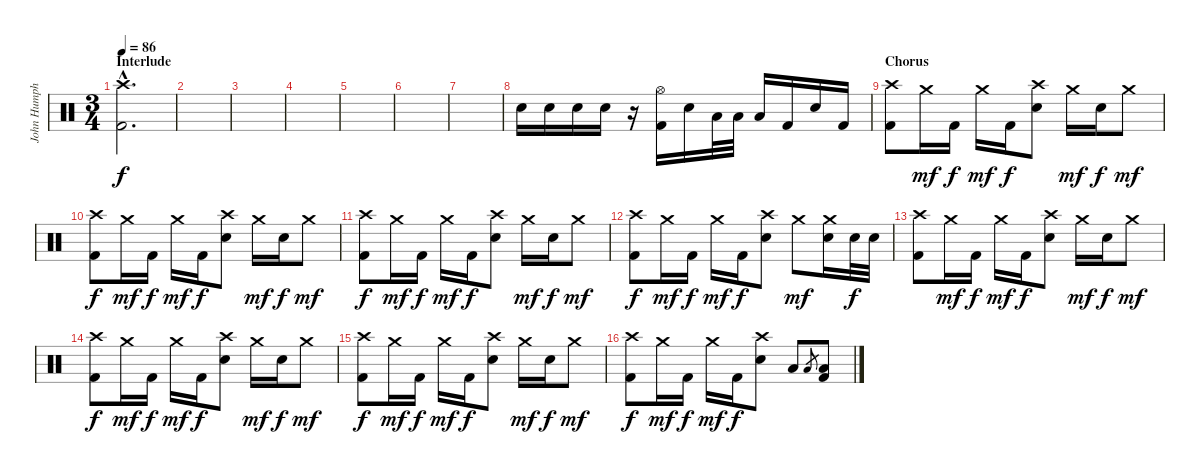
\track ("John Humphrey" "John Humph") {instrument percussion}
\staff {score}
\articulation defaults
\ts (3 4)
\section ("" "Interlude")
\tempo 86
\clef neutral
\ks c
("Crash high (hit)"{hac} "Kick (hit) 2"{hac}).2{d dy f} |
|
|
|
|
|
|
"Snare (hit) 2".16 "Snare (hit) 2".16 "Snare (hit) 2".16 "Snare (hit) 2".16 r.16 ("Hi-Hat (open)" "Kick (hit) 2").16 "Snare (hit) 2".16 "Low Floor Tom (hit)".32 "Low Floor Tom (hit)".32 "Low Floor Tom (hit)".16 "Kick (hit) 2".16 "Snare (hit) 2".16 "Kick (hit) 2".16 |
\section ("" "Chorus")
("Crash high (hit)" "Kick (hit) 2").8 "Crash medium (hit)".16{dy mf} "Kick (hit) 2".16{dy f} "Crash medium (hit)".16{dy mf} "Kick (hit) 2".16{dy f} ("Crash high (hit)" "Snare (hit) 2").8 "Crash medium (hit)".16{dy mf} "Snare (hit) 2".16{dy f} "Crash medium (hit)".8{dy mf} |
("Crash high (hit)" "Kick (hit) 2").8{dy f} "Crash medium (hit)".16{dy mf} "Kick (hit) 2".16{dy f} "Crash medium (hit)".16{dy mf} "Kick (hit) 2".16{dy f} ("Crash high (hit)" "Snare (hit) 2").8 "Crash medium (hit)".16{dy mf} "Snare (hit) 2".16{dy f} "Crash medium (hit)".8{dy mf} |
("Crash high (hit)" "Kick (hit) 2").8{dy f} "Crash medium (hit)".16{dy mf} "Kick (hit) 2".16{dy f} "Crash medium (hit)".16{dy mf} "Kick (hit) 2".16{dy f} ("Crash high (hit)" "Snare (hit) 2").8 "Crash medium (hit)".16{dy mf} "Snare (hit) 2".16{dy f} "Crash medium (hit)".8{dy mf} |
("Crash high (hit)" "Kick (hit) 2").8{dy f} "Crash medium (hit)".16{dy mf} "Kick (hit) 2".16{dy f} "Crash medium (hit)".16{dy mf} "Kick (hit) 2".16{dy f} ("Crash high (hit)" "Snare (hit) 2").8 "Crash medium (hit)".8{dy mf} ("Crash medium (hit)" "Snare (hit) 2").16 "Snare (hit) 2".32{dy f} "Snare (hit) 2".32 |
("Crash high (hit)" "Kick (hit) 2").8 "Crash medium (hit)".16{dy mf} "Kick (hit) 2".16{dy f} "Crash medium (hit)".16{dy mf} "Kick (hit) 2".16{dy f} ("Crash high (hit)" "Snare (hit) 2").8 "Crash medium (hit)".16{dy mf} "Snare (hit) 2".16{dy f} "Crash medium (hit)".8{dy mf} |
("Crash high (hit)" "Kick (hit) 2").8{dy f} "Crash medium (hit)".16{dy mf} "Kick (hit) 2".16{dy f} "Crash medium (hit)".16{dy mf} "Kick (hit) 2".16{dy f} ("Crash high (hit)" "Snare (hit) 2").8 "Crash medium (hit)".16{dy mf} "Snare (hit) 2".16{dy f} "Crash medium (hit)".8{dy mf} |
("Crash high (hit)" "Kick (hit) 2").8{dy f} "Crash medium (hit)".16{dy mf} "Kick (hit) 2".16{dy f} "Crash medium (hit)".16{dy mf} "Kick (hit) 2".16{dy f} ("Crash high (hit)" "Snare (hit) 2").8 "Crash medium (hit)".16{dy mf} "Snare (hit) 2".16{dy f} "Crash medium (hit)".8{dy mf} |
("Crash high (hit)" "Kick (hit) 2").8{dy f} "Crash medium (hit)".16{dy mf} "Kick (hit) 2".16{dy f} "Crash medium (hit)".16{dy mf} "Kick (hit) 2".16{dy f} ("Crash high (hit)" "Snare (hit) 2").8 "Low Tom (hit)".8 "Low Floor Tom (hit)".8{gr} ("Low Floor Tom (hit)" "Kick (hit) 2").8
